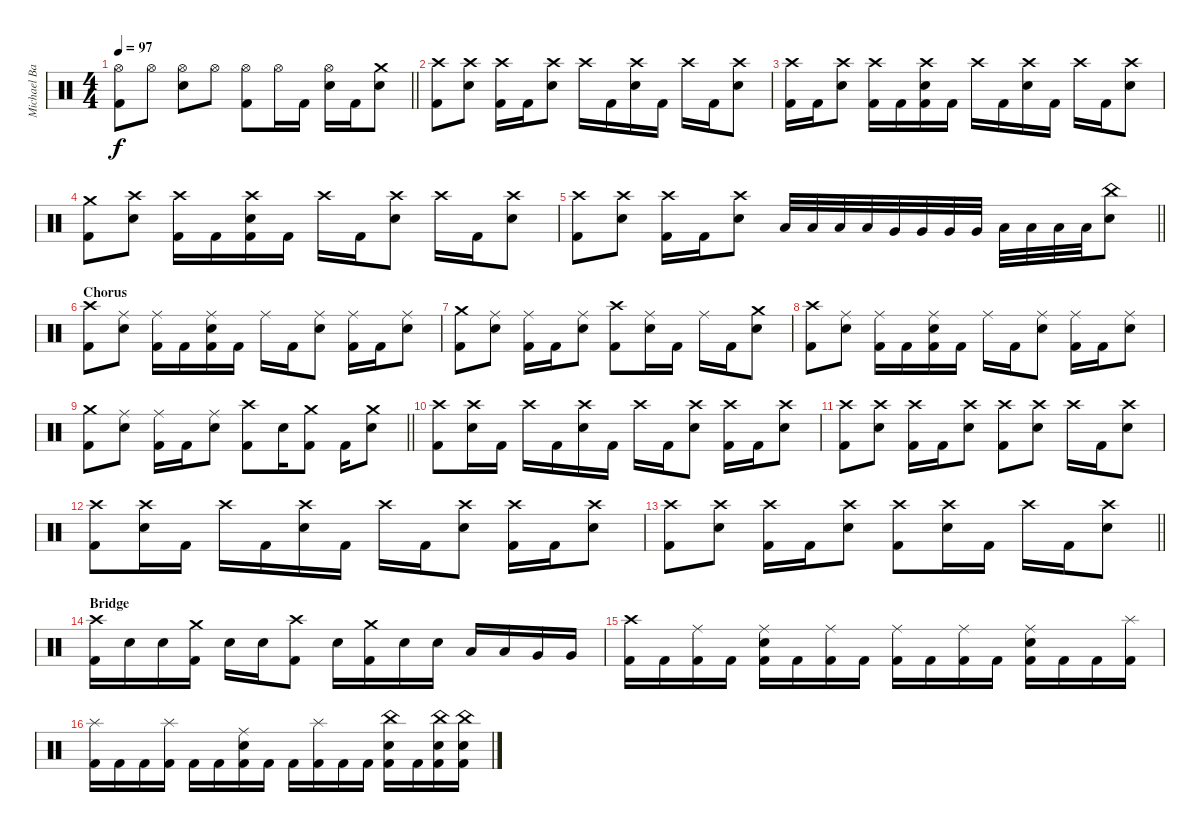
\track ("Michael Bartlett" "Michael Ba") {instrument percussion}
\staff {score}
\articulation defaults
\ts (4 4)
\tempo 97
\clef neutral
\barLineRight lightlight
\ks c
("Hi-Hat (open)" "Kick (hit) 2").8{dy f} "Hi-Hat (open)".8 ("Snare (hit) 2" "Hi-Hat (open)").8 "Hi-Hat (open)".8 ("Hi-Hat (open)" "Kick (hit) 2").8 "Hi-Hat (open)".16 "Kick (hit) 2".16 ("Snare (hit) 2" "Hi-Hat (open)").16 "Kick (hit) 2".16 ("Crash medium (hit)" "Snare (hit) 2").8 |
("Crash high (hit)" "Kick (hit) 2").8 ("Crash high (hit)" "Snare (hit) 2").8 ("Crash high (hit)" "Kick (hit) 2").16 "Kick (hit) 2".16 ("Crash high (hit)" "Snare (hit) 2").8 "Crash high (hit)".16 "Kick (hit) 2".16 ("Crash high (hit)" "Snare (hit) 2").16 "Kick (hit) 2".16 "Crash high (hit)".16 "Kick (hit) 2".16 ("Crash high (hit)" "Snare (hit) 2").8 |
("Crash high (hit)" "Kick (hit) 2").16 "Kick (hit) 2".16 ("Crash high (hit)" "Snare (hit) 2").8 ("Crash high (hit)" "Kick (hit) 2").16 "Kick (hit) 2".16 ("Crash high (hit)" "Snare (hit) 2" "Kick (hit) 2").16 "Kick (hit) 2".16 "Crash high (hit)".16 "Kick (hit) 2".16 ("Crash high (hit)" "Snare (hit) 2").16 "Kick (hit) 2".16 "Crash high (hit)".16 "Kick (hit) 2".16 ("Crash high (hit)" "Snare (hit) 2").8 |
("Crash medium (hit)" "Kick (hit) 2").8 ("Crash high (hit)" "Snare (hit) 2").8 ("Crash high (hit)" "Kick (hit) 2").16 "Kick (hit) 2".16 ("Crash high (hit)" "Snare (hit) 2" "Kick (hit) 2").16 "Kick (hit) 2".16 "Crash high (hit)".16 "Kick (hit) 2".16 ("Crash high (hit)" "Snare (hit) 2").8 "Crash high (hit)".16 "Kick (hit) 2".16 ("Crash high (hit)" "Snare (hit) 2").8 |
\barLineRight lightlight
("Crash high (hit)" "Kick (hit) 2").8 ("Crash high (hit)" "Snare (hit) 2").8 ("Crash high (hit)" "Kick (hit) 2").16 "Kick (hit) 2".16 ("Crash high (hit)" "Snare (hit) 2").8 "Low Tom (hit)".32 "Low Tom (hit)".32 "Low Tom (hit)".32 "Low Tom (hit)".32 "Very Low Tom (hit)".32 "Very Low Tom (hit)".32 "Very Low Tom (hit)".32 "Very Low Tom (hit)".32 "Low Floor Tom (hit)".32 "Low Floor Tom (hit)".32 "Low Floor Tom (hit)".32 "Low Floor Tom (hit)".32 ("China (hit)" "Snare (hit) 2").8 |
\section ("" "Chorus")
("Crash high (hit)" "Kick (hit) 2").8 ("Snare (hit) 2" "Ride (middle)").8 ("Ride (middle)" "Kick (hit) 2").16 "Kick (hit) 2".16 ("Snare (hit) 2" "Ride (middle)" "Kick (hit) 2").16 "Kick (hit) 2".16 "Ride (middle)".16 "Kick (hit) 2".16 ("Snare (hit) 2" "Ride (middle)").8 ("Ride (middle)" "Kick (hit) 2").16 "Kick (hit) 2".16 ("Snare (hit) 2" "Ride (middle)").8 |
("Crash medium (hit)" "Kick (hit) 2").8 ("Snare (hit) 2" "Ride (middle)").8 ("Ride (middle)" "Kick (hit) 2").16 "Kick (hit) 2".16 ("Snare (hit) 2" "Ride (middle)").8 ("Crash high (hit)" "Kick (hit) 2").8 ("Snare (hit) 2" "Ride (middle)").16 "Kick (hit) 2".16 "Ride (middle)".16 "Kick (hit) 2".16 ("Crash medium (hit)" "Snare (hit) 2").8 |
("Crash high (hit)" "Kick (hit) 2").8 ("Snare (hit) 2" "Ride (middle)").8 ("Ride (middle)" "Kick (hit) 2").16 "Kick (hit) 2".16 ("Snare (hit) 2" "Ride (middle)" "Kick (hit) 2").16 "Kick (hit) 2".16 "Ride (middle)".16 "Kick (hit) 2".16 ("Snare (hit) 2" "Ride (middle)").8 ("Ride (middle)" "Kick (hit) 2").16 "Kick (hit) 2".16 ("Snare (hit) 2" "Ride (middle)").8 |
\barLineRight lightlight
("Crash medium (hit)" "Kick (hit) 2").8 ("Snare (hit) 2" "Ride (middle)").8 ("Ride (middle)" "Kick (hit) 2").16 "Kick (hit) 2".16 ("Snare (hit) 2" "Ride (middle)").8 ("Crash high (hit)" "Kick (hit) 2").8 "Snare (hit) 2".16 ("Crash medium (hit)" "Kick (hit) 2").8 "Kick (hit) 2".16 ("Crash medium (hit)" "Snare (hit) 2").8 |
("Crash high (hit)" "Kick (hit) 2").8 ("Crash high (hit)" "Snare (hit) 2").16 "Kick (hit) 2".16 "Crash high (hit)".16 "Kick (hit) 2".16 ("Crash high (hit)" "Snare (hit) 2").16 "Kick (hit) 2".16 "Crash high (hit)".16 "Kick (hit) 2".16 ("Crash high (hit)" "Snare (hit) 2").8 ("Crash high (hit)" "Kick (hit) 2").16 "Kick (hit) 2".16 ("Crash high (hit)" "Snare (hit) 2").8 |
("Crash high (hit)" "Kick (hit) 2").8 ("Crash high (hit)" "Snare (hit) 2").8 ("Crash high (hit)" "Kick (hit) 2").16 "Kick (hit) 2".16 ("Crash high (hit)" "Snare (hit) 2").8 ("Crash high (hit)" "Kick (hit) 2").8 ("Crash high (hit)" "Snare (hit) 2").8 "Crash high (hit)".16 "Kick (hit) 2".16 ("Crash high (hit)" "Snare (hit) 2").8 |
("Crash high (hit)" "Kick (hit) 2").8 ("Crash high (hit)" "Snare (hit) 2").16 "Kick (hit) 2".16 "Crash high (hit)".16 "Kick (hit) 2".16 ("Crash high (hit)" "Snare (hit) 2").16 "Kick (hit) 2".16 "Crash high (hit)".16 "Kick (hit) 2".16 ("Crash high (hit)" "Snare (hit) 2").8 ("Crash high (hit)" "Kick (hit) 2").16 "Kick (hit) 2".16 ("Crash high (hit)" "Snare (hit) 2").8 |
\barLineRight lightlight
("Crash high (hit)" "Kick (hit) 2").8 ("Crash high (hit)" "Snare (hit) 2").8 ("Crash high (hit)" "Kick (hit) 2").16 "Kick (hit) 2".16 ("Crash high (hit)" "Snare (hit) 2").8 ("Crash high (hit)" "Kick (hit) 2").8 ("Crash high (hit)" "Snare (hit) 2").16 "Kick (hit) 2".16 "Crash high (hit)".16 "Kick (hit) 2".16 ("Crash high (hit)" "Snare (hit) 2").8 |
\section ("" "Bridge")
("Crash high (hit)" "Kick (hit) 2").16 "Snare (hit) 2".16 "Snare (hit) 2".16 ("Crash medium (hit)" "Kick (hit) 2").16 "Snare (hit) 2".16 "Snare (hit) 2".16 ("Crash high (hit)" "Kick (hit) 2").8 "Snare (hit) 2".16 ("Crash medium (hit)" "Kick (hit) 2").16 "Snare (hit) 2".16 "Snare (hit) 2".16 "Low Tom (hit)".16 "Low Tom (hit)".16 "Very Low Tom (hit)".16 "Very Low Tom (hit)".16 |
("Crash high (hit)" "Kick (hit) 2").16 "Kick (hit) 2".16 ("Ride (middle)" "Kick (hit) 2").16 "Kick (hit) 2".16 ("Snare (hit) 2" "Ride (middle)" "Kick (hit) 2").16 "Kick (hit) 2".16 ("Ride (middle)" "Kick (hit) 2").16 "Kick (hit) 2".16 ("Ride (middle)" "Kick (hit) 2").16 "Kick (hit) 2".16 ("Ride (middle)" "Kick (hit) 2").16 "Kick (hit) 2".16 ("Snare (hit) 2" "Ride (middle)" "Kick (hit) 2").16 "Kick (hit) 2".16 "Kick (hit) 2".16 ("Splash (hit)" "Kick (hit) 2").16 |
("Splash (hit)" "Kick (hit) 2").16 "Kick (hit) 2".16 "Kick (hit) 2".16 ("Splash (hit)" "Kick (hit) 2").16 "Kick (hit) 2".16 "Kick (hit) 2".16 ("Snare (hit) 2" "Ride (middle)" "Kick (hit) 2").16 "Kick (hit) 2".16 "Kick (hit) 2".16 ("Splash (hit)" "Kick (hit) 2").16 "Kick (hit) 2".16 "Kick (hit) 2".16 ("China (hit)" "Snare (hit) 2" "Kick (hit) 2").16 "Kick (hit) 2".16 ("China (hit)" "Snare (hit) 2" "Kick (hit) 2").16 ("China (hit)" "Snare (hit) 2" "Kick (hit) 2").16
